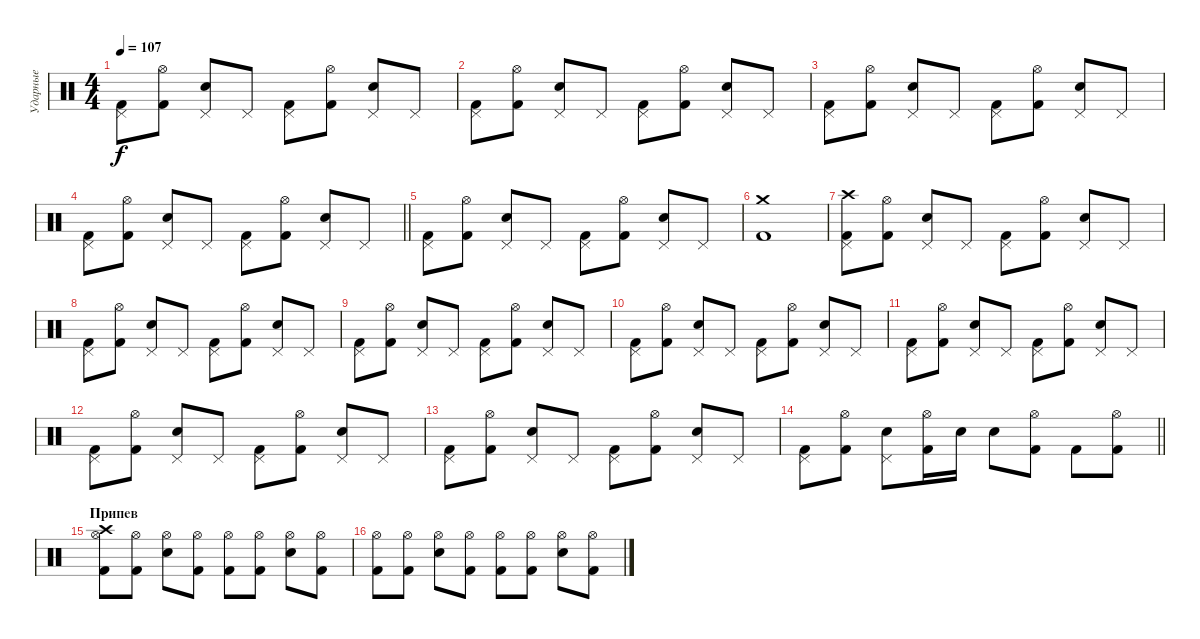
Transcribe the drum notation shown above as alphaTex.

\track ("Ударные" "Ударные") {instrument percussion}
\staff {score}
\articulation defaults
\ts (4 4)
\tempo 107
\clef neutral
\ks c
("Kick (hit) 2" "Pedal Hi-Hat (hit)").8{dy f} ("Kick (hit) 2" "Hi-Hat (open)").8 ("Pedal Hi-Hat (hit)" "Snare (hit) 2").8 "Pedal Hi-Hat (hit)".8 ("Kick (hit) 2" "Pedal Hi-Hat (hit)").8 ("Kick (hit) 2" "Hi-Hat (open)").8 ("Pedal Hi-Hat (hit)" "Snare (hit) 2").8 "Pedal Hi-Hat (hit)".8 |
("Kick (hit) 2" "Pedal Hi-Hat (hit)").8 ("Kick (hit) 2" "Hi-Hat (open)").8 ("Pedal Hi-Hat (hit)" "Snare (hit) 2").8 "Pedal Hi-Hat (hit)".8 ("Kick (hit) 2" "Pedal Hi-Hat (hit)").8 ("Kick (hit) 2" "Hi-Hat (open)").8 ("Pedal Hi-Hat (hit)" "Snare (hit) 2").8 "Pedal Hi-Hat (hit)".8 |
("Kick (hit) 2" "Pedal Hi-Hat (hit)").8 ("Kick (hit) 2" "Hi-Hat (open)").8 ("Pedal Hi-Hat (hit)" "Snare (hit) 2").8 "Pedal Hi-Hat (hit)".8 ("Kick (hit) 2" "Pedal Hi-Hat (hit)").8 ("Kick (hit) 2" "Hi-Hat (open)").8 ("Pedal Hi-Hat (hit)" "Snare (hit) 2").8 "Pedal Hi-Hat (hit)".8 |
\barLineRight lightlight
("Kick (hit) 2" "Pedal Hi-Hat (hit)").8 ("Kick (hit) 2" "Hi-Hat (open)").8 ("Pedal Hi-Hat (hit)" "Snare (hit) 2").8 "Pedal Hi-Hat (hit)".8 ("Kick (hit) 2" "Pedal Hi-Hat (hit)").8 ("Kick (hit) 2" "Hi-Hat (open)").8 ("Pedal Hi-Hat (hit)" "Snare (hit) 2").8 "Pedal Hi-Hat (hit)".8 |
("Kick (hit) 2" "Pedal Hi-Hat (hit)").8 ("Kick (hit) 2" "Hi-Hat (open)").8 ("Pedal Hi-Hat (hit)" "Snare (hit) 2").8 "Pedal Hi-Hat (hit)".8 ("Kick (hit) 2" "Pedal Hi-Hat (hit)").8 ("Kick (hit) 2" "Hi-Hat (open)").8 ("Pedal Hi-Hat (hit)" "Snare (hit) 2").8 "Pedal Hi-Hat (hit)".8 |
("Kick (hit) 2" "Crash medium (hit)").1 |
("Kick (hit) 2" "Pedal Hi-Hat (hit)" "Crash high (hit)").8 ("Kick (hit) 2" "Hi-Hat (open)").8 ("Pedal Hi-Hat (hit)" "Snare (hit) 2").8 "Pedal Hi-Hat (hit)".8 ("Kick (hit) 2" "Pedal Hi-Hat (hit)").8 ("Kick (hit) 2" "Hi-Hat (open)").8 ("Pedal Hi-Hat (hit)" "Snare (hit) 2").8 "Pedal Hi-Hat (hit)".8 |
("Kick (hit) 2" "Pedal Hi-Hat (hit)").8 ("Kick (hit) 2" "Hi-Hat (open)").8 ("Pedal Hi-Hat (hit)" "Snare (hit) 2").8 "Pedal Hi-Hat (hit)".8 ("Kick (hit) 2" "Pedal Hi-Hat (hit)").8 ("Kick (hit) 2" "Hi-Hat (open)").8 ("Pedal Hi-Hat (hit)" "Snare (hit) 2").8 "Pedal Hi-Hat (hit)".8 |
("Kick (hit) 2" "Pedal Hi-Hat (hit)").8 ("Kick (hit) 2" "Hi-Hat (open)").8 ("Pedal Hi-Hat (hit)" "Snare (hit) 2").8 "Pedal Hi-Hat (hit)".8 ("Kick (hit) 2" "Pedal Hi-Hat (hit)").8 ("Kick (hit) 2" "Hi-Hat (open)").8 ("Pedal Hi-Hat (hit)" "Snare (hit) 2").8 "Pedal Hi-Hat (hit)".8 |
("Kick (hit) 2" "Pedal Hi-Hat (hit)").8 ("Kick (hit) 2" "Hi-Hat (open)").8 ("Pedal Hi-Hat (hit)" "Snare (hit) 2").8 "Pedal Hi-Hat (hit)".8 ("Kick (hit) 2" "Pedal Hi-Hat (hit)").8 ("Kick (hit) 2" "Hi-Hat (open)").8 ("Pedal Hi-Hat (hit)" "Snare (hit) 2").8 "Pedal Hi-Hat (hit)".8 |
("Kick (hit) 2" "Pedal Hi-Hat (hit)").8 ("Kick (hit) 2" "Hi-Hat (open)").8 ("Pedal Hi-Hat (hit)" "Snare (hit) 2").8 "Pedal Hi-Hat (hit)".8 ("Kick (hit) 2" "Pedal Hi-Hat (hit)").8 ("Kick (hit) 2" "Hi-Hat (open)").8 ("Pedal Hi-Hat (hit)" "Snare (hit) 2").8 "Pedal Hi-Hat (hit)".8 |
("Kick (hit) 2" "Pedal Hi-Hat (hit)").8 ("Kick (hit) 2" "Hi-Hat (open)").8 ("Pedal Hi-Hat (hit)" "Snare (hit) 2").8 "Pedal Hi-Hat (hit)".8 ("Kick (hit) 2" "Pedal Hi-Hat (hit)").8 ("Kick (hit) 2" "Hi-Hat (open)").8 ("Pedal Hi-Hat (hit)" "Snare (hit) 2").8 "Pedal Hi-Hat (hit)".8 |
("Kick (hit) 2" "Pedal Hi-Hat (hit)").8 ("Kick (hit) 2" "Hi-Hat (open)").8 ("Pedal Hi-Hat (hit)" "Snare (hit) 2").8 "Pedal Hi-Hat (hit)".8 ("Kick (hit) 2" "Pedal Hi-Hat (hit)").8 ("Kick (hit) 2" "Hi-Hat (open)").8 ("Pedal Hi-Hat (hit)" "Snare (hit) 2").8 "Pedal Hi-Hat (hit)".8 |
\barLineRight lightlight
("Kick (hit) 2" "Pedal Hi-Hat (hit)").8 ("Kick (hit) 2" "Hi-Hat (open)").8 ("Pedal Hi-Hat (hit)" "Snare (hit) 2").8 ("Kick (hit) 2" "Hi-Hat (open)").16 "Snare (hit) 2".16 "Snare (hit) 2".8 ("Kick (hit) 2" "Hi-Hat (open)").8 "Kick (hit) 2".8 ("Kick (hit) 2" "Hi-Hat (open)").8 |
\section ("" "Припев")
("Kick (hit) 2" "Crash high (hit)" "Hi-Hat (open)").8 ("Kick (hit) 2" "Hi-Hat (open)").8 ("Snare (hit) 2" "Hi-Hat (open)").8 ("Kick (hit) 2" "Hi-Hat (open)").8 ("Kick (hit) 2" "Hi-Hat (open)").8 ("Kick (hit) 2" "Hi-Hat (open)").8 ("Snare (hit) 2" "Hi-Hat (open)").8 ("Kick (hit) 2" "Hi-Hat (open)").8 |
("Kick (hit) 2" "Hi-Hat (open)").8 ("Kick (hit) 2" "Hi-Hat (open)").8 ("Snare (hit) 2" "Hi-Hat (open)").8 ("Kick (hit) 2" "Hi-Hat (open)").8 ("Kick (hit) 2" "Hi-Hat (open)").8 ("Kick (hit) 2" "Hi-Hat (open)").8 ("Snare (hit) 2" "Hi-Hat (open)").8 ("Kick (hit) 2" "Hi-Hat (open)").8
